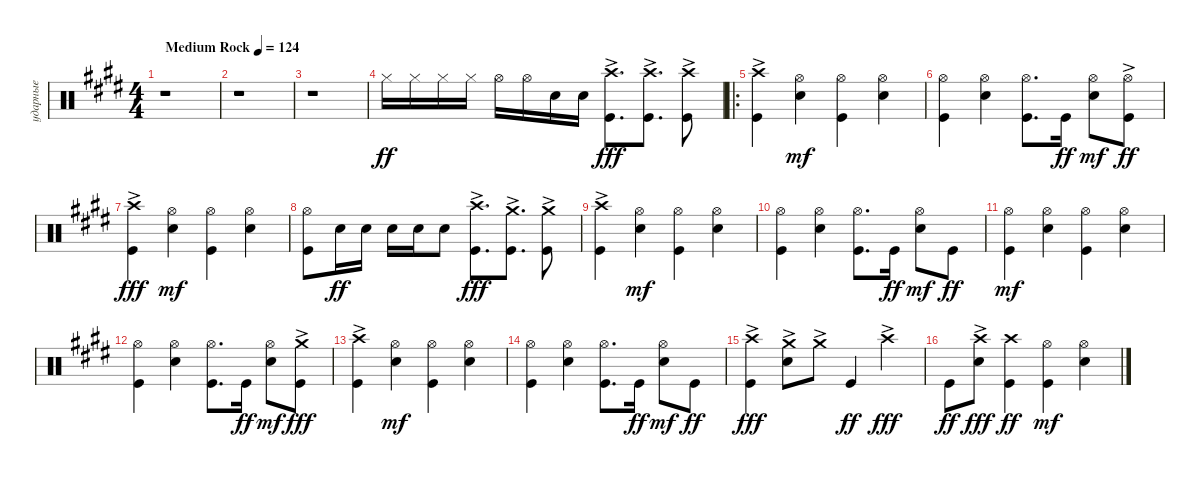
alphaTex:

\track ("ударные" "ударные") {instrument percussion}
\staff {score}
\articulation defaults
\ts (4 4)
\tempo (124 "Medium Rock")
\clef neutral
\ks e
r.1{dy ff} |
r.1 |
r.1 |
"Hi-Hat (closed)".16 "Hi-Hat (closed)".16 "Hi-Hat (closed)".16 "Hi-Hat (closed)".16 "Hi-Hat (open)".16 "Hi-Hat (open)".16 "Snare (hit) 2".16 "Snare (hit) 2".16 ("Kick (hit)" "Crash high (hit)"{ac}).8{d dy fff} ("Kick (hit)" "Crash high (hit)"{ac}).8{d} ("Kick (hit)" "Crash high (hit)"{ac}).8 |
\ro
("Kick (hit)" "Crash high (hit)"{ac}).4 ("Snare (hit) 2" "Hi-Hat (open)").4{dy mf} ("Kick (hit)" "Hi-Hat (open)").4 ("Snare (hit) 2" "Hi-Hat (open)").4 |
("Kick (hit)" "Hi-Hat (open)").4 ("Snare (hit) 2" "Hi-Hat (open)").4 ("Kick (hit)" "Hi-Hat (open)").8{d} "Kick (hit)".16{dy ff} ("Snare (hit) 2" "Hi-Hat (open)").8{dy mf} ("Kick (hit)" "Hi-Hat (open)"{ac}).8{dy ff} |
("Kick (hit)" "Crash high (hit)"{ac}).4{dy fff} ("Snare (hit) 2" "Hi-Hat (open)").4{dy mf} ("Kick (hit)" "Hi-Hat (open)").4 ("Snare (hit) 2" "Hi-Hat (open)").4 |
("Kick (hit)" "Hi-Hat (open)").8 "Snare (hit) 2".16{dy ff} "Snare (hit) 2".16 "Snare (hit) 2".16 "Snare (hit) 2".16 "Snare (hit) 2".8 ("Kick (hit)" "Crash high (hit)"{ac}).8{d dy fff} ("Kick (hit)" "Crash medium (hit)"{ac}).8{d} ("Kick (hit)" "Crash medium (hit)"{ac}).8 |
("Kick (hit)" "Crash high (hit)"{ac}).4 ("Snare (hit) 2" "Hi-Hat (open)").4{dy mf} ("Kick (hit)" "Hi-Hat (open)").4 ("Snare (hit) 2" "Hi-Hat (open)").4 |
("Kick (hit)" "Hi-Hat (open)").4 ("Snare (hit) 2" "Hi-Hat (open)").4 ("Kick (hit)" "Hi-Hat (open)").8{d} "Kick (hit)".16{dy ff} ("Snare (hit) 2" "Hi-Hat (open)").8{dy mf} "Kick (hit)".8{dy ff} |
("Kick (hit)" "Hi-Hat (open)").4{dy mf} ("Snare (hit) 2" "Hi-Hat (open)").4 ("Kick (hit)" "Hi-Hat (open)").4 ("Snare (hit) 2" "Hi-Hat (open)").4 |
("Kick (hit)" "Hi-Hat (open)").4 ("Snare (hit) 2" "Hi-Hat (open)").4 ("Kick (hit)" "Hi-Hat (open)").8{d} "Kick (hit)".16{dy ff} ("Snare (hit) 2" "Hi-Hat (open)").8{dy mf} ("Kick (hit)" "Crash medium (hit)"{ac}).8{dy fff} |
("Kick (hit)" "Crash high (hit)"{ac}).4 ("Snare (hit) 2" "Hi-Hat (open)").4{dy mf} ("Kick (hit)" "Hi-Hat (open)").4 ("Snare (hit) 2" "Hi-Hat (open)").4 |
("Kick (hit)" "Hi-Hat (open)").4 ("Snare (hit) 2" "Hi-Hat (open)").4 ("Kick (hit)" "Hi-Hat (open)").8{d} "Kick (hit)".16{dy ff} ("Snare (hit) 2" "Hi-Hat (open)").8{dy mf} "Kick (hit)".8{dy ff} |
("Kick (hit)" "Crash high (hit)"{ac}).4{dy fff} ("Snare (hit) 2" "Crash medium (hit)"{ac}).8 "Crash medium (hit)"{ac}.8 "Kick (hit)".4{dy ff} "Crash high (hit)"{ac}.4{dy fff} |
"Kick (hit)".8{dy ff} ("Snare (hit) 2" "Crash high (hit)"{ac}).8{dy fff} ("Crash high (hit)" "Kick (hit)").4{dy ff} ("Kick (hit)" "Hi-Hat (open)").4{dy mf} ("Snare (hit) 2" "Hi-Hat (open)").4
